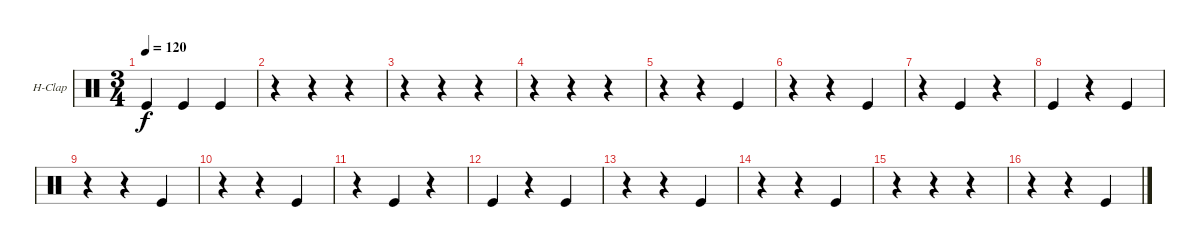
\bracketExtendMode groupsimilarinstruments
\firstSystemTrackNameOrientation horizontal
\otherSystemsTrackNameOrientation horizontal
\track ("Hand Clap" "H-Clap") {instrument percussion}
\staff {score}
\articulation defaults
\ts (3 4)
\tempo 120
\clef neutral
\ks c "Kick (hit)".4{dy f} "Kick (hit)".4 "Kick (hit)".4
|
r.4 r.4 r.4 |
r.4 r.4 r.4 |
r.4 r.4 r.4 |
r.4 r.4 "Kick (hit)".4 |
r.4 r.4 "Kick (hit)".4 |
r.4 "Kick (hit)".4 r.4 |
"Kick (hit)".4 r.4 "Kick (hit)".4 |
r.4 r.4 "Kick (hit)".4 |
r.4 r.4 "Kick (hit)".4 |
r.4 "Kick (hit)".4 r.4 |
"Kick (hit)".4 r.4 "Kick (hit)".4 |
r.4 r.4 "Kick (hit)".4 |
r.4 r.4 "Kick (hit)".4 |
r.4 r.4 r.4 |
r.4 r.4 "Kick (hit)".4
